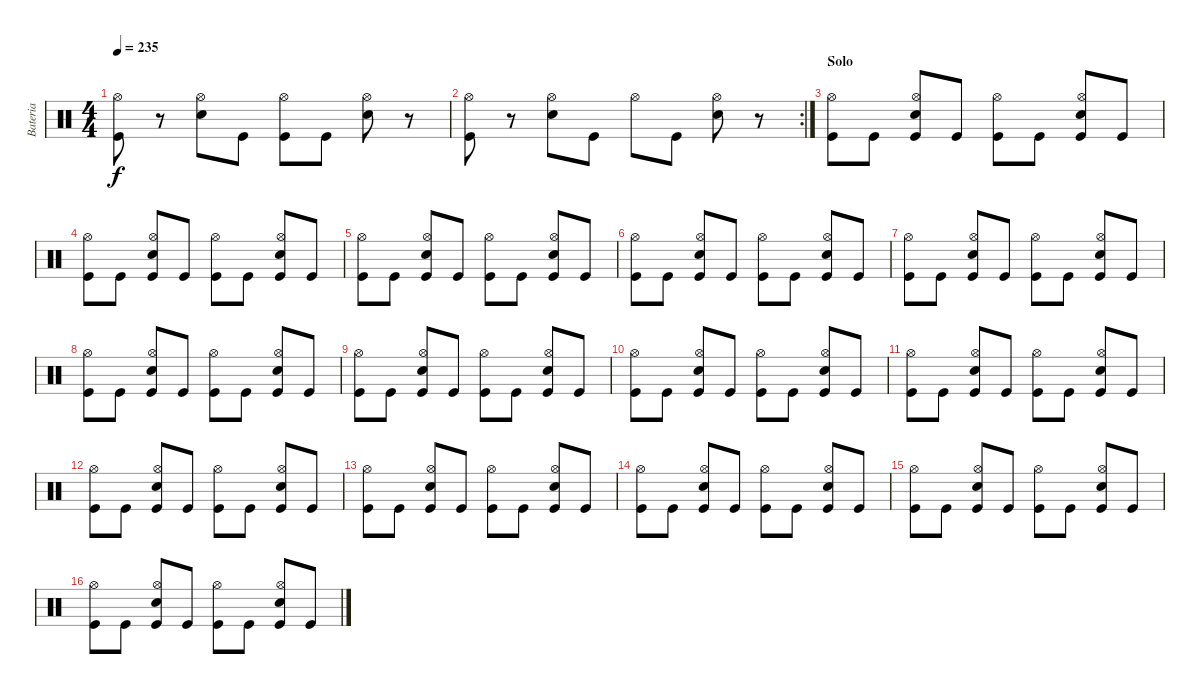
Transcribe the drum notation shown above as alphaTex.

\track ("Bateria" "Bateria") {instrument percussion}
\staff {score}
\articulation defaults
\ts (4 4)
\tempo 235
\clef neutral
\ks c
("Kick (hit)" "Hi-Hat (open)").8{dy f} r.8 ("Electric Snare (hit)" "Hi-Hat (open)").8 "Kick (hit)".8 ("Kick (hit)" "Hi-Hat (open)").8 "Kick (hit)".8 ("Electric Snare (hit)" "Hi-Hat (open)").8 r.8 |
\rc 2
("Kick (hit)" "Hi-Hat (open)").8 r.8 ("Electric Snare (hit)" "Hi-Hat (open)").8 "Kick (hit)".8 "Hi-Hat (open)".8 "Kick (hit)".8 ("Electric Snare (hit)" "Hi-Hat (open)").8 r.8 |
\section ("" "Solo")
("Kick (hit)" "Hi-Hat (open)").8 "Kick (hit)".8 ("Kick (hit)" "Electric Snare (hit)" "Hi-Hat (open)").8 "Kick (hit)".8 ("Kick (hit)" "Hi-Hat (open)").8 "Kick (hit)".8 ("Kick (hit)" "Electric Snare (hit)" "Hi-Hat (open)").8 "Kick (hit)".8 |
("Kick (hit)" "Hi-Hat (open)").8 "Kick (hit)".8 ("Kick (hit)" "Electric Snare (hit)" "Hi-Hat (open)").8 "Kick (hit)".8 ("Kick (hit)" "Hi-Hat (open)").8 "Kick (hit)".8 ("Kick (hit)" "Electric Snare (hit)" "Hi-Hat (open)").8 "Kick (hit)".8 |
("Kick (hit)" "Hi-Hat (open)").8 "Kick (hit)".8 ("Kick (hit)" "Electric Snare (hit)" "Hi-Hat (open)").8 "Kick (hit)".8 ("Kick (hit)" "Hi-Hat (open)").8 "Kick (hit)".8 ("Kick (hit)" "Electric Snare (hit)" "Hi-Hat (open)").8 "Kick (hit)".8 |
("Kick (hit)" "Hi-Hat (open)").8 "Kick (hit)".8 ("Kick (hit)" "Electric Snare (hit)" "Hi-Hat (open)").8 "Kick (hit)".8 ("Kick (hit)" "Hi-Hat (open)").8 "Kick (hit)".8 ("Kick (hit)" "Electric Snare (hit)" "Hi-Hat (open)").8 "Kick (hit)".8 |
("Kick (hit)" "Hi-Hat (open)").8 "Kick (hit)".8 ("Kick (hit)" "Electric Snare (hit)" "Hi-Hat (open)").8 "Kick (hit)".8 ("Kick (hit)" "Hi-Hat (open)").8 "Kick (hit)".8 ("Kick (hit)" "Electric Snare (hit)" "Hi-Hat (open)").8 "Kick (hit)".8 |
("Kick (hit)" "Hi-Hat (open)").8 "Kick (hit)".8 ("Kick (hit)" "Electric Snare (hit)" "Hi-Hat (open)").8 "Kick (hit)".8 ("Kick (hit)" "Hi-Hat (open)").8 "Kick (hit)".8 ("Kick (hit)" "Electric Snare (hit)" "Hi-Hat (open)").8 "Kick (hit)".8 |
("Kick (hit)" "Hi-Hat (open)").8 "Kick (hit)".8 ("Kick (hit)" "Electric Snare (hit)" "Hi-Hat (open)").8 "Kick (hit)".8 ("Kick (hit)" "Hi-Hat (open)").8 "Kick (hit)".8 ("Kick (hit)" "Electric Snare (hit)" "Hi-Hat (open)").8 "Kick (hit)".8 |
("Kick (hit)" "Hi-Hat (open)").8 "Kick (hit)".8 ("Kick (hit)" "Electric Snare (hit)" "Hi-Hat (open)").8 "Kick (hit)".8 ("Kick (hit)" "Hi-Hat (open)").8 "Kick (hit)".8 ("Kick (hit)" "Electric Snare (hit)" "Hi-Hat (open)").8 "Kick (hit)".8 |
("Kick (hit)" "Hi-Hat (open)").8 "Kick (hit)".8 ("Kick (hit)" "Electric Snare (hit)" "Hi-Hat (open)").8 "Kick (hit)".8 ("Kick (hit)" "Hi-Hat (open)").8 "Kick (hit)".8 ("Kick (hit)" "Electric Snare (hit)" "Hi-Hat (open)").8 "Kick (hit)".8 |
("Kick (hit)" "Hi-Hat (open)").8 "Kick (hit)".8 ("Kick (hit)" "Electric Snare (hit)" "Hi-Hat (open)").8 "Kick (hit)".8 ("Kick (hit)" "Hi-Hat (open)").8 "Kick (hit)".8 ("Kick (hit)" "Electric Snare (hit)" "Hi-Hat (open)").8 "Kick (hit)".8 |
("Kick (hit)" "Hi-Hat (open)").8 "Kick (hit)".8 ("Kick (hit)" "Electric Snare (hit)" "Hi-Hat (open)").8 "Kick (hit)".8 ("Kick (hit)" "Hi-Hat (open)").8 "Kick (hit)".8 ("Kick (hit)" "Electric Snare (hit)" "Hi-Hat (open)").8 "Kick (hit)".8 |
("Kick (hit)" "Hi-Hat (open)").8 "Kick (hit)".8 ("Kick (hit)" "Electric Snare (hit)" "Hi-Hat (open)").8 "Kick (hit)".8 ("Kick (hit)" "Hi-Hat (open)").8 "Kick (hit)".8 ("Kick (hit)" "Electric Snare (hit)" "Hi-Hat (open)").8 "Kick (hit)".8 |
("Kick (hit)" "Hi-Hat (open)").8 "Kick (hit)".8 ("Kick (hit)" "Electric Snare (hit)" "Hi-Hat (open)").8 "Kick (hit)".8 ("Kick (hit)" "Hi-Hat (open)").8 "Kick (hit)".8 ("Kick (hit)" "Electric Snare (hit)" "Hi-Hat (open)").8 "Kick (hit)".8 |
("Kick (hit)" "Hi-Hat (open)").8 "Kick (hit)".8 ("Kick (hit)" "Electric Snare (hit)" "Hi-Hat (open)").8 "Kick (hit)".8 ("Kick (hit)" "Hi-Hat (open)").8 "Kick (hit)".8 ("Kick (hit)" "Electric Snare (hit)" "Hi-Hat (open)").8 "Kick (hit)".8
